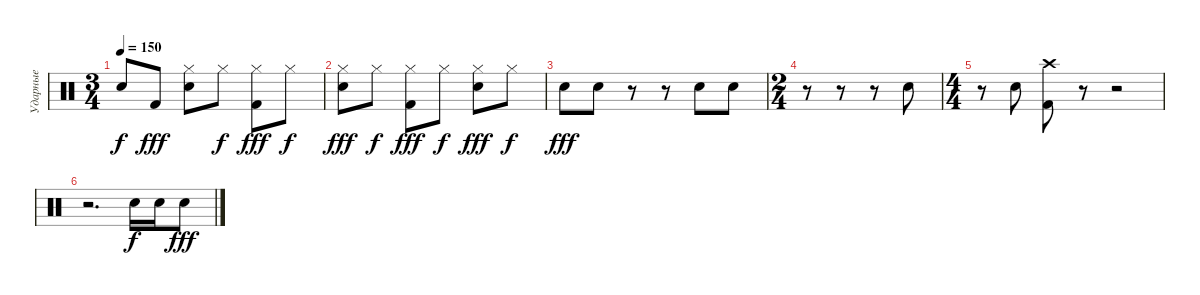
\track ("Ударные" "Ударные") {instrument percussion}
\staff {score}
\articulation defaults
\ts (3 4)
\tempo 150
\clef neutral
\ks c "Snare (hit)"{t}.8{dy f} "Kick (hit) 2".8{dy fff}
("Snare (hit) 2" "Hi-Hat (closed)").8 "Hi-Hat (closed)".8{dy f} ("Kick (hit) 2" "Hi-Hat (closed)").8{dy fff} "Hi-Hat (closed)".8{dy f} |
("Snare (hit) 2" "Hi-Hat (closed)").8{dy fff} "Hi-Hat (closed)".8{dy f} ("Kick (hit) 2" "Hi-Hat (closed)").8{dy fff} "Hi-Hat (closed)".8{dy f} ("Snare (hit) 2" "Hi-Hat (closed)").8{dy fff} "Hi-Hat (closed)".8{dy f} |
"Snare (hit) 2".8{dy fff} "Snare (hit) 2".8 r.8 r.8 "Snare (hit) 2".8 "Snare (hit) 2".8 |
\ts (2 4)
r.8 r.8 r.8 "Snare (hit) 2".8 |
\ts (4 4)
r.8 "Snare (hit) 2".8 ("Kick (hit) 2" "Crash high (hit)").8 r.8 r.2 |
r.2{d} "Snare (hit) 2".16{dy f} "Snare (hit) 2".16 "Snare (hit) 2".8{dy fff}
